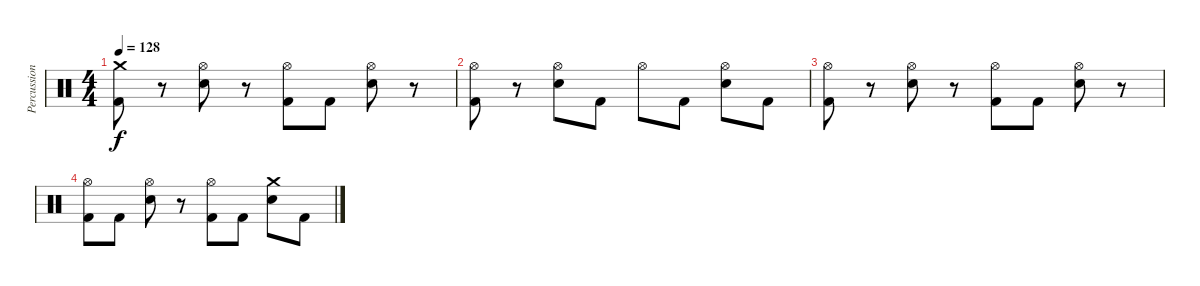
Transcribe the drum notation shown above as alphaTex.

\track ("Percussion" "Percussion") {instrument percussion}
\staff {score}
\articulation defaults
\ts (4 4)
\tempo 128
\clef neutral
\ks c
("Crash medium (hit)" "Kick (hit) 2").8{dy f} r.8 ("Hi-Hat (open)" "Snare (hit) 2").8 r.8 ("Hi-Hat (open)" "Kick (hit) 2").8 "Kick (hit) 2".8 ("Hi-Hat (open)" "Snare (hit) 2").8 r.8 |
("Hi-Hat (open)" "Kick (hit) 2").8 r.8 ("Hi-Hat (open)" "Snare (hit) 2").8 "Kick (hit) 2".8 "Hi-Hat (open)".8 "Kick (hit) 2".8 ("Hi-Hat (open)" "Snare (hit) 2").8 "Kick (hit) 2".8 |
("Hi-Hat (open)" "Kick (hit) 2").8 r.8 ("Hi-Hat (open)" "Snare (hit) 2").8 r.8 ("Hi-Hat (open)" "Kick (hit) 2").8 "Kick (hit) 2".8 ("Hi-Hat (open)" "Snare (hit) 2").8 r.8 |
("Hi-Hat (open)" "Kick (hit) 2").8 "Kick (hit) 2".8 ("Hi-Hat (open)" "Snare (hit) 2").8 r.8 ("Hi-Hat (open)" "Kick (hit) 2").8 "Kick (hit) 2".8 ("Crash medium (hit)" "Snare (hit) 2").8 "Kick (hit) 2".8
